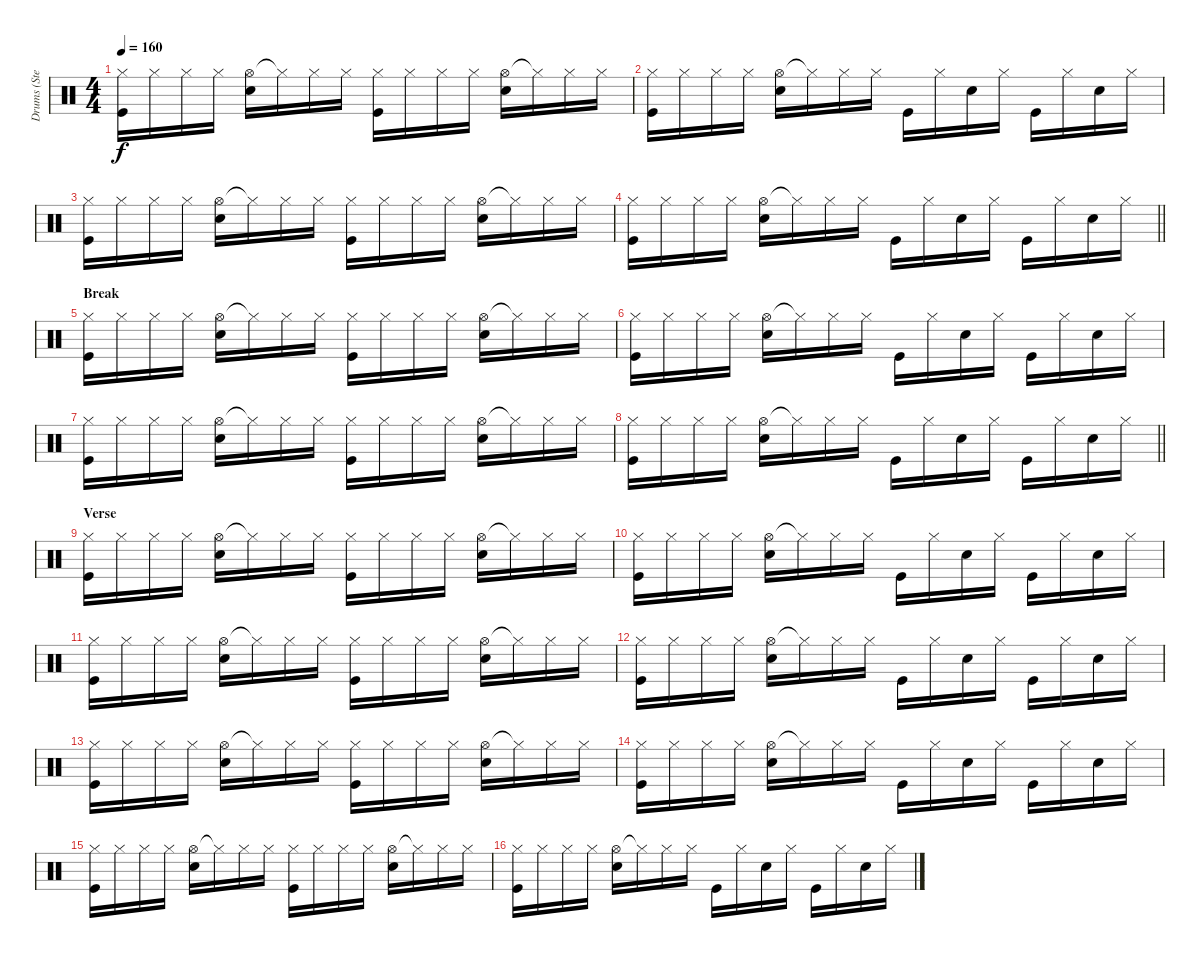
\track ("Drums (Stephen Morris)" "Drums (Ste") {instrument percussion}
\staff {score}
\articulation defaults
\ts (4 4)
\tempo 160
\clef neutral
\ks c
("Hi-Hat (closed)" "Kick (hit)").16{dy f} "Hi-Hat (closed)".16 "Hi-Hat (closed)".16 "Hi-Hat (closed)".16 ("Hi-Hat (open)" "Electric Snare (hit)").16 "Hi-Hat (closed)"{t}.16 "Hi-Hat (closed)".16 "Hi-Hat (closed)".16 ("Hi-Hat (closed)" "Kick (hit)").16 "Hi-Hat (closed)".16 "Hi-Hat (closed)".16 "Hi-Hat (closed)".16 ("Hi-Hat (open)" "Electric Snare (hit)").16 "Hi-Hat (closed)"{t}.16 "Hi-Hat (closed)".16 "Hi-Hat (closed)".16 |
("Hi-Hat (closed)" "Kick (hit)").16 "Hi-Hat (closed)".16 "Hi-Hat (closed)".16 "Hi-Hat (closed)".16 ("Hi-Hat (open)" "Electric Snare (hit)").16 "Hi-Hat (closed)"{t}.16 "Hi-Hat (closed)".16 "Hi-Hat (closed)".16 "Kick (hit)".16 "Hi-Hat (closed)".16 "Electric Snare (hit)".16 "Hi-Hat (closed)".16 "Kick (hit)".16 "Hi-Hat (closed)".16 "Electric Snare (hit)".16 "Hi-Hat (closed)".16 |
("Hi-Hat (closed)" "Kick (hit)").16 "Hi-Hat (closed)".16 "Hi-Hat (closed)".16 "Hi-Hat (closed)".16 ("Hi-Hat (open)" "Electric Snare (hit)").16 "Hi-Hat (closed)"{t}.16 "Hi-Hat (closed)".16 "Hi-Hat (closed)".16 ("Hi-Hat (closed)" "Kick (hit)").16 "Hi-Hat (closed)".16 "Hi-Hat (closed)".16 "Hi-Hat (closed)".16 ("Hi-Hat (open)" "Electric Snare (hit)").16 "Hi-Hat (closed)"{t}.16 "Hi-Hat (closed)".16 "Hi-Hat (closed)".16 |
\barLineRight lightlight
("Hi-Hat (closed)" "Kick (hit)").16 "Hi-Hat (closed)".16 "Hi-Hat (closed)".16 "Hi-Hat (closed)".16 ("Hi-Hat (open)" "Electric Snare (hit)").16 "Hi-Hat (closed)"{t}.16 "Hi-Hat (closed)".16 "Hi-Hat (closed)".16 "Kick (hit)".16 "Hi-Hat (closed)".16 "Electric Snare (hit)".16 "Hi-Hat (closed)".16 "Kick (hit)".16 "Hi-Hat (closed)".16 "Electric Snare (hit)".16 "Hi-Hat (closed)".16 |
\section ("" "Break")
("Hi-Hat (closed)" "Kick (hit)").16 "Hi-Hat (closed)".16 "Hi-Hat (closed)".16 "Hi-Hat (closed)".16 ("Hi-Hat (open)" "Electric Snare (hit)").16 "Hi-Hat (closed)"{t}.16 "Hi-Hat (closed)".16 "Hi-Hat (closed)".16 ("Hi-Hat (closed)" "Kick (hit)").16 "Hi-Hat (closed)".16 "Hi-Hat (closed)".16 "Hi-Hat (closed)".16 ("Hi-Hat (open)" "Electric Snare (hit)").16 "Hi-Hat (closed)"{t}.16 "Hi-Hat (closed)".16 "Hi-Hat (closed)".16 |
("Hi-Hat (closed)" "Kick (hit)").16 "Hi-Hat (closed)".16 "Hi-Hat (closed)".16 "Hi-Hat (closed)".16 ("Hi-Hat (open)" "Electric Snare (hit)").16 "Hi-Hat (closed)"{t}.16 "Hi-Hat (closed)".16 "Hi-Hat (closed)".16 "Kick (hit)".16 "Hi-Hat (closed)".16 "Electric Snare (hit)".16 "Hi-Hat (closed)".16 "Kick (hit)".16 "Hi-Hat (closed)".16 "Electric Snare (hit)".16 "Hi-Hat (closed)".16 |
("Hi-Hat (closed)" "Kick (hit)").16 "Hi-Hat (closed)".16 "Hi-Hat (closed)".16 "Hi-Hat (closed)".16 ("Hi-Hat (open)" "Electric Snare (hit)").16 "Hi-Hat (closed)"{t}.16 "Hi-Hat (closed)".16 "Hi-Hat (closed)".16 ("Hi-Hat (closed)" "Kick (hit)").16 "Hi-Hat (closed)".16 "Hi-Hat (closed)".16 "Hi-Hat (closed)".16 ("Hi-Hat (open)" "Electric Snare (hit)").16 "Hi-Hat (closed)"{t}.16 "Hi-Hat (closed)".16 "Hi-Hat (closed)".16 |
\barLineRight lightlight
("Hi-Hat (closed)" "Kick (hit)").16 "Hi-Hat (closed)".16 "Hi-Hat (closed)".16 "Hi-Hat (closed)".16 ("Hi-Hat (open)" "Electric Snare (hit)").16 "Hi-Hat (closed)"{t}.16 "Hi-Hat (closed)".16 "Hi-Hat (closed)".16 "Kick (hit)".16 "Hi-Hat (closed)".16 "Electric Snare (hit)".16 "Hi-Hat (closed)".16 "Kick (hit)".16 "Hi-Hat (closed)".16 "Electric Snare (hit)".16 "Hi-Hat (closed)".16 |
\section ("" "Verse")
("Hi-Hat (closed)" "Kick (hit)").16 "Hi-Hat (closed)".16 "Hi-Hat (closed)".16 "Hi-Hat (closed)".16 ("Hi-Hat (open)" "Electric Snare (hit)").16 "Hi-Hat (closed)"{t}.16 "Hi-Hat (closed)".16 "Hi-Hat (closed)".16 ("Hi-Hat (closed)" "Kick (hit)").16 "Hi-Hat (closed)".16 "Hi-Hat (closed)".16 "Hi-Hat (closed)".16 ("Hi-Hat (open)" "Electric Snare (hit)").16 "Hi-Hat (closed)"{t}.16 "Hi-Hat (closed)".16 "Hi-Hat (closed)".16 |
("Hi-Hat (closed)" "Kick (hit)").16 "Hi-Hat (closed)".16 "Hi-Hat (closed)".16 "Hi-Hat (closed)".16 ("Hi-Hat (open)" "Electric Snare (hit)").16 "Hi-Hat (closed)"{t}.16 "Hi-Hat (closed)".16 "Hi-Hat (closed)".16 "Kick (hit)".16 "Hi-Hat (closed)".16 "Electric Snare (hit)".16 "Hi-Hat (closed)".16 "Kick (hit)".16 "Hi-Hat (closed)".16 "Electric Snare (hit)".16 "Hi-Hat (closed)".16 |
("Hi-Hat (closed)" "Kick (hit)").16 "Hi-Hat (closed)".16 "Hi-Hat (closed)".16 "Hi-Hat (closed)".16 ("Hi-Hat (open)" "Electric Snare (hit)").16 "Hi-Hat (closed)"{t}.16 "Hi-Hat (closed)".16 "Hi-Hat (closed)".16 ("Hi-Hat (closed)" "Kick (hit)").16 "Hi-Hat (closed)".16 "Hi-Hat (closed)".16 "Hi-Hat (closed)".16 ("Hi-Hat (open)" "Electric Snare (hit)").16 "Hi-Hat (closed)"{t}.16 "Hi-Hat (closed)".16 "Hi-Hat (closed)".16 |
("Hi-Hat (closed)" "Kick (hit)").16 "Hi-Hat (closed)".16 "Hi-Hat (closed)".16 "Hi-Hat (closed)".16 ("Hi-Hat (open)" "Electric Snare (hit)").16 "Hi-Hat (closed)"{t}.16 "Hi-Hat (closed)".16 "Hi-Hat (closed)".16 "Kick (hit)".16 "Hi-Hat (closed)".16 "Electric Snare (hit)".16 "Hi-Hat (closed)".16 "Kick (hit)".16 "Hi-Hat (closed)".16 "Electric Snare (hit)".16 "Hi-Hat (closed)".16 |
("Hi-Hat (closed)" "Kick (hit)").16 "Hi-Hat (closed)".16 "Hi-Hat (closed)".16 "Hi-Hat (closed)".16 ("Hi-Hat (open)" "Electric Snare (hit)").16 "Hi-Hat (closed)"{t}.16 "Hi-Hat (closed)".16 "Hi-Hat (closed)".16 ("Hi-Hat (closed)" "Kick (hit)").16 "Hi-Hat (closed)".16 "Hi-Hat (closed)".16 "Hi-Hat (closed)".16 ("Hi-Hat (open)" "Electric Snare (hit)").16 "Hi-Hat (closed)"{t}.16 "Hi-Hat (closed)".16 "Hi-Hat (closed)".16 |
("Hi-Hat (closed)" "Kick (hit)").16 "Hi-Hat (closed)".16 "Hi-Hat (closed)".16 "Hi-Hat (closed)".16 ("Hi-Hat (open)" "Electric Snare (hit)").16 "Hi-Hat (closed)"{t}.16 "Hi-Hat (closed)".16 "Hi-Hat (closed)".16 "Kick (hit)".16 "Hi-Hat (closed)".16 "Electric Snare (hit)".16 "Hi-Hat (closed)".16 "Kick (hit)".16 "Hi-Hat (closed)".16 "Electric Snare (hit)".16 "Hi-Hat (closed)".16 |
("Hi-Hat (closed)" "Kick (hit)").16 "Hi-Hat (closed)".16 "Hi-Hat (closed)".16 "Hi-Hat (closed)".16 ("Hi-Hat (open)" "Electric Snare (hit)").16 "Hi-Hat (closed)"{t}.16 "Hi-Hat (closed)".16 "Hi-Hat (closed)".16 ("Hi-Hat (closed)" "Kick (hit)").16 "Hi-Hat (closed)".16 "Hi-Hat (closed)".16 "Hi-Hat (closed)".16 ("Hi-Hat (open)" "Electric Snare (hit)").16 "Hi-Hat (closed)"{t}.16 "Hi-Hat (closed)".16 "Hi-Hat (closed)".16 |
("Hi-Hat (closed)" "Kick (hit)").16 "Hi-Hat (closed)".16 "Hi-Hat (closed)".16 "Hi-Hat (closed)".16 ("Hi-Hat (open)" "Electric Snare (hit)").16 "Hi-Hat (closed)"{t}.16 "Hi-Hat (closed)".16 "Hi-Hat (closed)".16 "Kick (hit)".16 "Hi-Hat (closed)".16 "Electric Snare (hit)".16 "Hi-Hat (closed)".16 "Kick (hit)".16 "Hi-Hat (closed)".16 "Electric Snare (hit)".16 "Hi-Hat (closed)".16
